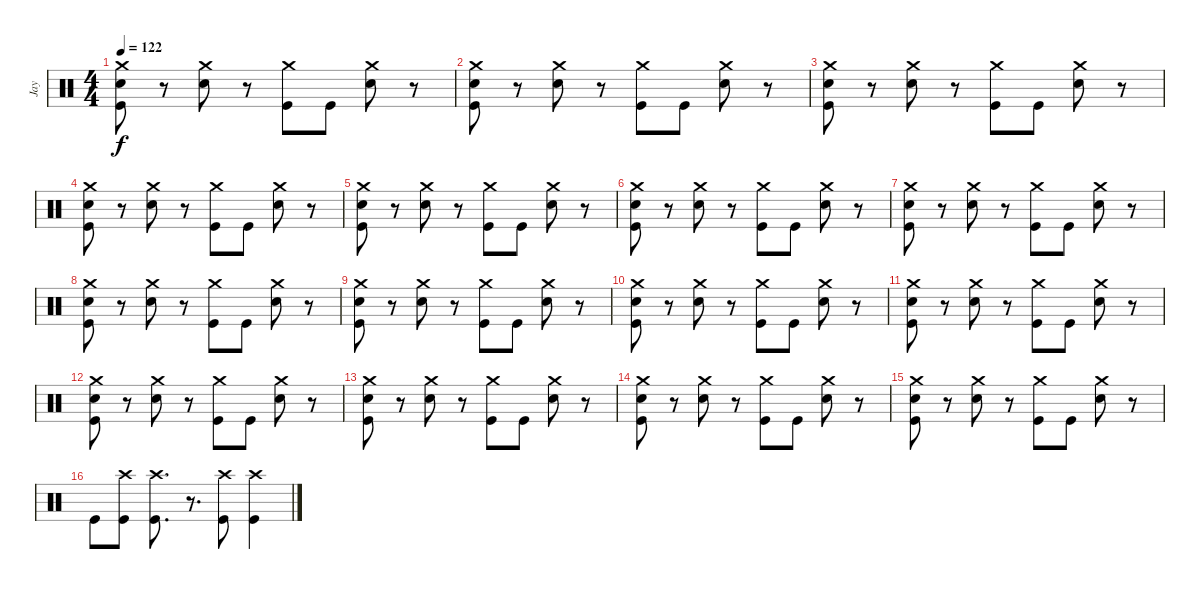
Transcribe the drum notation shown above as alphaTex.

\track ("Jay" "Jay") {instrument percussion}
\staff {score}
\articulation defaults
\ts (4 4)
\tempo 122
\clef neutral
\ks c
("Crash medium (hit)" "Kick (hit)" "Snare (hit)").8{dy f} r.8 ("Crash medium (hit)" "Electric Snare (hit)").8 r.8 ("Crash medium (hit)" "Kick (hit)").8 "Kick (hit)".8 ("Crash medium (hit)" "Electric Snare (hit)").8 r.8 |
("Crash medium (hit)" "Kick (hit)" "Snare (hit)").8 r.8 ("Crash medium (hit)" "Electric Snare (hit)").8 r.8 ("Crash medium (hit)" "Kick (hit)").8 "Kick (hit)".8 ("Crash medium (hit)" "Electric Snare (hit)").8 r.8 |
("Crash medium (hit)" "Kick (hit)" "Snare (hit)").8 r.8 ("Crash medium (hit)" "Electric Snare (hit)").8 r.8 ("Crash medium (hit)" "Kick (hit)").8 "Kick (hit)".8 ("Crash medium (hit)" "Electric Snare (hit)").8 r.8 |
("Crash medium (hit)" "Kick (hit)" "Snare (hit)").8 r.8 ("Crash medium (hit)" "Electric Snare (hit)").8 r.8 ("Crash medium (hit)" "Kick (hit)").8 "Kick (hit)".8 ("Crash medium (hit)" "Electric Snare (hit)").8 r.8 |
("Crash medium (hit)" "Kick (hit)" "Snare (hit)").8 r.8 ("Crash medium (hit)" "Electric Snare (hit)").8 r.8 ("Crash medium (hit)" "Kick (hit)").8 "Kick (hit)".8 ("Crash medium (hit)" "Electric Snare (hit)").8 r.8 |
("Crash medium (hit)" "Kick (hit)" "Snare (hit)").8 r.8 ("Crash medium (hit)" "Electric Snare (hit)").8 r.8 ("Crash medium (hit)" "Kick (hit)").8 "Kick (hit)".8 ("Crash medium (hit)" "Electric Snare (hit)").8 r.8 |
("Crash medium (hit)" "Kick (hit)" "Snare (hit)").8 r.8 ("Crash medium (hit)" "Electric Snare (hit)").8 r.8 ("Crash medium (hit)" "Kick (hit)").8 "Kick (hit)".8 ("Crash medium (hit)" "Electric Snare (hit)").8 r.8 |
("Crash medium (hit)" "Kick (hit)" "Snare (hit)").8 r.8 ("Crash medium (hit)" "Electric Snare (hit)").8 r.8 ("Crash medium (hit)" "Kick (hit)").8 "Kick (hit)".8 ("Crash medium (hit)" "Electric Snare (hit)").8 r.8 |
("Crash medium (hit)" "Kick (hit)" "Snare (hit)").8 r.8 ("Crash medium (hit)" "Electric Snare (hit)").8 r.8 ("Crash medium (hit)" "Kick (hit)").8 "Kick (hit)".8 ("Crash medium (hit)" "Electric Snare (hit)").8 r.8 |
("Crash medium (hit)" "Kick (hit)" "Snare (hit)").8 r.8 ("Crash medium (hit)" "Electric Snare (hit)").8 r.8 ("Crash medium (hit)" "Kick (hit)").8 "Kick (hit)".8 ("Crash medium (hit)" "Electric Snare (hit)").8 r.8 |
("Crash medium (hit)" "Kick (hit)" "Snare (hit)").8 r.8 ("Crash medium (hit)" "Electric Snare (hit)").8 r.8 ("Crash medium (hit)" "Kick (hit)").8 "Kick (hit)".8 ("Crash medium (hit)" "Electric Snare (hit)").8 r.8 |
("Crash medium (hit)" "Kick (hit)" "Snare (hit)").8 r.8 ("Crash medium (hit)" "Electric Snare (hit)").8 r.8 ("Crash medium (hit)" "Kick (hit)").8 "Kick (hit)".8 ("Crash medium (hit)" "Electric Snare (hit)").8 r.8 |
("Crash medium (hit)" "Kick (hit)" "Snare (hit)").8 r.8 ("Crash medium (hit)" "Electric Snare (hit)").8 r.8 ("Crash medium (hit)" "Kick (hit)").8 "Kick (hit)".8 ("Crash medium (hit)" "Electric Snare (hit)").8 r.8 |
("Crash medium (hit)" "Kick (hit)" "Snare (hit)").8 r.8 ("Crash medium (hit)" "Electric Snare (hit)").8 r.8 ("Crash medium (hit)" "Kick (hit)").8 "Kick (hit)".8 ("Crash medium (hit)" "Electric Snare (hit)").8 r.8 |
("Crash medium (hit)" "Kick (hit)" "Snare (hit)").8 r.8 ("Crash medium (hit)" "Electric Snare (hit)").8 r.8 ("Crash medium (hit)" "Kick (hit)").8 "Kick (hit)".8 ("Crash medium (hit)" "Electric Snare (hit)").8 r.8 |
"Kick (hit)".8 ("Crash high (hit)" "Kick (hit)").8 ("Crash high (hit)" "Kick (hit)").8{d} r.8{d} ("Crash high (hit)" "Kick (hit)").8 ("Crash high (hit)" "Kick (hit)").4
